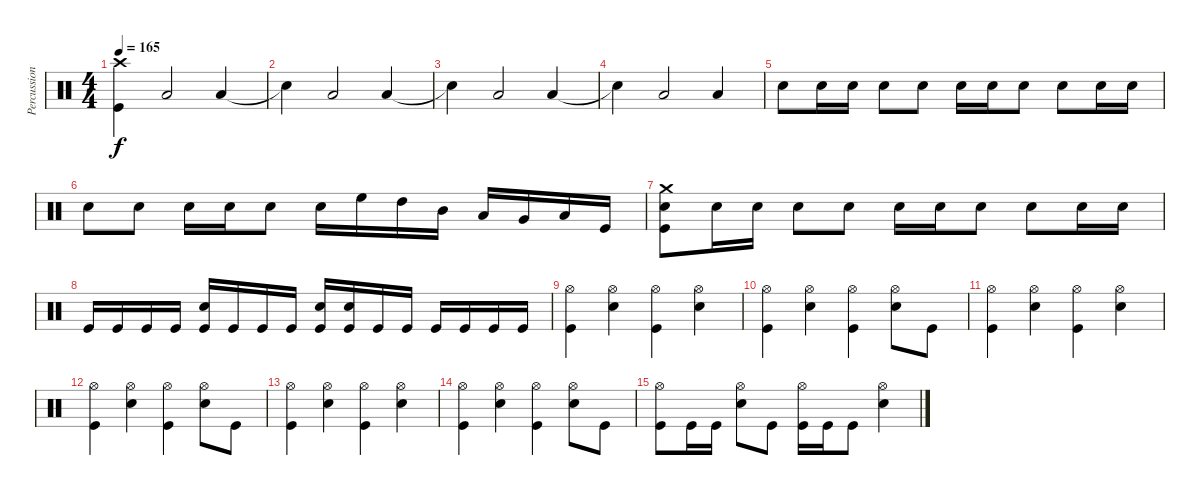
\track ("Percussions" "Percussion") {instrument percussion}
\staff {score}
\articulation defaults
\ts (4 4)
\tempo 165
\clef neutral
\ks c
("Crash high (hit)" "Kick (hit)").4{dy f} "Low Floor Tom (hit)".2 "Low Floor Tom (hit)".4 |
"Snare (hit)"{t}.4 "Low Floor Tom (hit)".2 "Low Floor Tom (hit)".4 |
"Snare (hit)"{t}.4 "Low Floor Tom (hit)".2 "Low Floor Tom (hit)".4 |
"Snare (hit)"{t}.4 "Low Floor Tom (hit)".2 "Low Floor Tom (hit)".4 |
"Snare (hit) 2".8 "Snare (hit) 2".16 "Snare (hit) 2".16 "Snare (hit) 2".8 "Snare (hit) 2".8 "Snare (hit) 2".16 "Snare (hit) 2".16 "Snare (hit) 2".8 "Snare (hit) 2".8 "Snare (hit) 2".16 "Snare (hit) 2".16 |
"Snare (hit) 2".8 "Snare (hit) 2".8 "Snare (hit) 2".16 "Snare (hit) 2".16 "Snare (hit) 2".8 "Snare (hit) 2".16 "High Floor Tom (hit)".16 "High Tom (hit)".16 "Mid Tom (hit)".16 "Low Tom (hit)".16 "Very Low Tom (hit)".16 "Low Floor Tom (hit)".16 "Kick (hit)".16 |
("Crash medium (hit)" "Snare (hit) 2" "Kick (hit)").8 "Snare (hit) 2".16 "Snare (hit) 2".16 "Snare (hit) 2".8 "Snare (hit) 2".8 "Snare (hit) 2".16 "Snare (hit) 2".16 "Snare (hit) 2".8 "Snare (hit) 2".8 "Snare (hit) 2".16 "Snare (hit) 2".16 |
"Kick (hit)".16 "Kick (hit)".16 "Kick (hit)".16 "Kick (hit)".16 ("Snare (hit) 2" "Kick (hit)").16 "Kick (hit)".16 "Kick (hit)".16 "Kick (hit)".16 ("Snare (hit) 2" "Kick (hit)").16 ("Snare (hit) 2" "Kick (hit)").16 "Kick (hit)".16 "Kick (hit)".16 "Kick (hit)".16 "Kick (hit)".16 "Kick (hit)".16 "Kick (hit)".16 |
("Hi-Hat (open)" "Kick (hit)").4 ("Hi-Hat (open)" "Snare (hit) 2").4 ("Hi-Hat (open)" "Kick (hit)").4 ("Hi-Hat (open)" "Snare (hit) 2").4 |
("Hi-Hat (open)" "Kick (hit)").4 ("Hi-Hat (open)" "Snare (hit) 2").4 ("Hi-Hat (open)" "Kick (hit)").4 ("Hi-Hat (open)" "Snare (hit) 2").8 "Kick (hit)".8 |
("Hi-Hat (open)" "Kick (hit)").4 ("Hi-Hat (open)" "Snare (hit) 2").4 ("Hi-Hat (open)" "Kick (hit)").4 ("Hi-Hat (open)" "Snare (hit) 2").4 |
("Hi-Hat (open)" "Kick (hit)").4 ("Hi-Hat (open)" "Snare (hit) 2").4 ("Hi-Hat (open)" "Kick (hit)").4 ("Hi-Hat (open)" "Snare (hit) 2").8 "Kick (hit)".8 |
("Hi-Hat (open)" "Kick (hit)").4 ("Hi-Hat (open)" "Snare (hit) 2").4 ("Hi-Hat (open)" "Kick (hit)").4 ("Hi-Hat (open)" "Snare (hit) 2").4 |
("Hi-Hat (open)" "Kick (hit)").4 ("Hi-Hat (open)" "Snare (hit) 2").4 ("Hi-Hat (open)" "Kick (hit)").4 ("Hi-Hat (open)" "Snare (hit) 2").8 "Kick (hit)".8 |
("Hi-Hat (open)" "Kick (hit)").8 "Kick (hit)".16 "Kick (hit)".16 ("Hi-Hat (open)" "Snare (hit) 2").8 "Kick (hit)".8 ("Hi-Hat (open)" "Kick (hit)").16 "Kick (hit)".16 "Kick (hit)".8 ("Hi-Hat (open)" "Snare (hit) 2").4
